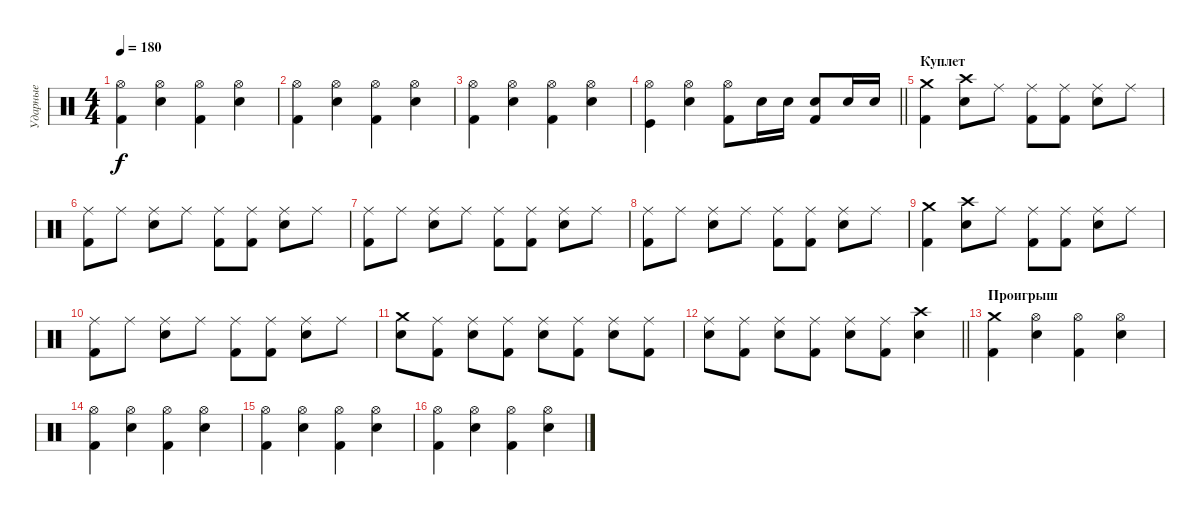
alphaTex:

\track ("Ударные" "Ударные") {instrument percussion}
\staff {score}
\articulation defaults
\ts (4 4)
\tempo 180
\clef neutral
\ks c
("Hi-Hat (open)" "Kick (hit) 2").4{dy f} ("Hi-Hat (open)" "Electric Snare (hit)").4 ("Hi-Hat (open)" "Kick (hit) 2").4 ("Hi-Hat (open)" "Electric Snare (hit)").4 |
("Hi-Hat (open)" "Kick (hit) 2").4 ("Hi-Hat (open)" "Electric Snare (hit)").4 ("Hi-Hat (open)" "Kick (hit) 2").4 ("Hi-Hat (open)" "Electric Snare (hit)").4 |
("Hi-Hat (open)" "Kick (hit) 2").4 ("Hi-Hat (open)" "Electric Snare (hit)").4 ("Hi-Hat (open)" "Kick (hit) 2").4 ("Hi-Hat (open)" "Electric Snare (hit)").4 |
\barLineRight lightlight
("Hi-Hat (open)" "Kick (hit)").4 ("Hi-Hat (open)" "Electric Snare (hit)").4 ("Hi-Hat (open)" "Kick (hit) 2").8 "Electric Snare (hit)".16 "Electric Snare (hit)".16 ("Kick (hit) 2" "Electric Snare (hit)").8 "Electric Snare (hit)".16 "Electric Snare (hit)".16 |
\section ("" "Куплет")
("Crash medium (hit)" "Kick (hit) 2").4 ("Crash high (hit)" "Electric Snare (hit)").8 "Ride (middle)".8 ("Ride (middle)" "Kick (hit) 2").8 ("Ride (middle)" "Kick (hit) 2").8 ("Ride (middle)" "Electric Snare (hit)").8 "Ride (middle)".8 |
("Ride (middle)" "Kick (hit) 2").8 "Ride (middle)".8 ("Ride (middle)" "Electric Snare (hit)").8 "Ride (middle)".8 ("Ride (middle)" "Kick (hit) 2").8 ("Ride (middle)" "Kick (hit) 2").8 ("Ride (middle)" "Electric Snare (hit)").8 "Ride (middle)".8 |
("Ride (middle)" "Kick (hit) 2").8 "Ride (middle)".8 ("Ride (middle)" "Electric Snare (hit)").8 "Ride (middle)".8 ("Ride (middle)" "Kick (hit) 2").8 ("Ride (middle)" "Kick (hit) 2").8 ("Ride (middle)" "Electric Snare (hit)").8 "Ride (middle)".8 |
("Ride (middle)" "Kick (hit) 2").8 "Ride (middle)".8 ("Ride (middle)" "Electric Snare (hit)").8 "Ride (middle)".8 ("Ride (middle)" "Kick (hit) 2").8 ("Ride (middle)" "Kick (hit) 2").8 ("Ride (middle)" "Electric Snare (hit)").8 "Ride (middle)".8 |
("Crash medium (hit)" "Kick (hit) 2").4 ("Crash high (hit)" "Electric Snare (hit)").8 "Ride (middle)".8 ("Ride (middle)" "Kick (hit) 2").8 ("Ride (middle)" "Kick (hit) 2").8 ("Ride (middle)" "Electric Snare (hit)").8 "Ride (middle)".8 |
("Ride (middle)" "Kick (hit) 2").8 "Ride (middle)".8 ("Ride (middle)" "Electric Snare (hit)").8 "Ride (middle)".8 ("Ride (middle)" "Kick (hit) 2").8 ("Ride (middle)" "Kick (hit) 2").8 ("Ride (middle)" "Electric Snare (hit)").8 "Ride (middle)".8 |
("Crash medium (hit)" "Electric Snare (hit)").8 ("Ride (middle)" "Kick (hit) 2").8 ("Ride (middle)" "Electric Snare (hit)").8 ("Ride (middle)" "Kick (hit) 2").8 ("Ride (middle)" "Electric Snare (hit)").8 ("Ride (middle)" "Kick (hit) 2").8 ("Ride (middle)" "Electric Snare (hit)").8 ("Ride (middle)" "Kick (hit) 2").8 |
\barLineRight lightlight
("Ride (middle)" "Electric Snare (hit)").8 ("Ride (middle)" "Kick (hit) 2").8 ("Ride (middle)" "Electric Snare (hit)").8 ("Ride (middle)" "Kick (hit) 2").8 ("Ride (middle)" "Electric Snare (hit)").8 ("Ride (middle)" "Kick (hit) 2").8 ("Crash high (hit)" "Electric Snare (hit)").4 |
\section ("" "Проигрыш")
("Crash medium (hit)" "Kick (hit) 2").4 ("Hi-Hat (open)" "Electric Snare (hit)").4 ("Hi-Hat (open)" "Kick (hit) 2").4 ("Hi-Hat (open)" "Electric Snare (hit)").4 |
("Hi-Hat (open)" "Kick (hit) 2").4 ("Hi-Hat (open)" "Electric Snare (hit)").4 ("Hi-Hat (open)" "Kick (hit) 2").4 ("Hi-Hat (open)" "Electric Snare (hit)").4 |
("Hi-Hat (open)" "Kick (hit) 2").4 ("Hi-Hat (open)" "Electric Snare (hit)").4 ("Hi-Hat (open)" "Kick (hit) 2").4 ("Hi-Hat (open)" "Electric Snare (hit)").4 |
("Hi-Hat (open)" "Kick (hit) 2").4 ("Hi-Hat (open)" "Electric Snare (hit)").4 ("Hi-Hat (open)" "Kick (hit) 2").4 ("Hi-Hat (open)" "Electric Snare (hit)").4
